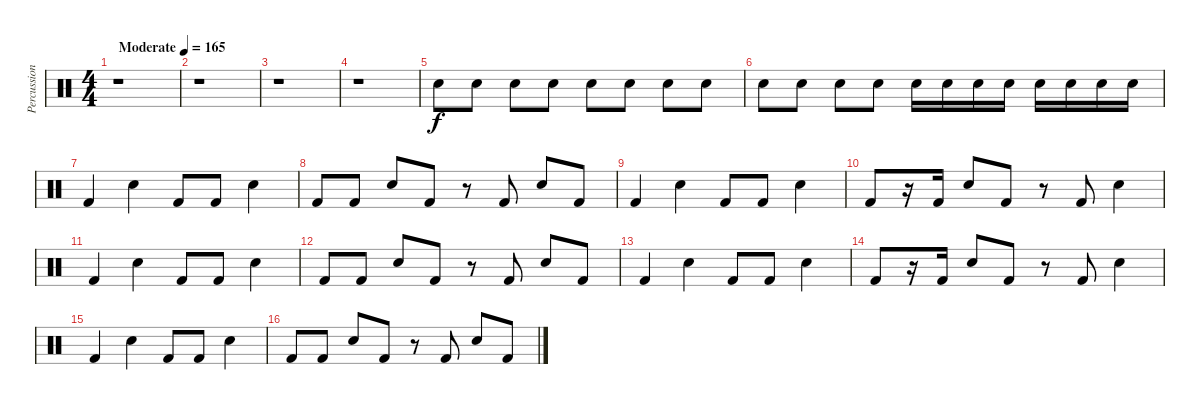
\track ("Percussion" "Percussion") {instrument percussion}
\staff {score}
\articulation defaults
\ts (4 4)
\tempo (165 "Moderate")
\clef neutral
\ks c
r.1{dy f} |
r.1 |
r.1 |
r.1 |
"Snare (hit) 2".8 "Snare (hit) 2".8 "Snare (hit) 2".8 "Snare (hit) 2".8 "Snare (hit) 2".8 "Snare (hit) 2".8 "Snare (hit) 2".8 "Snare (hit) 2".8 |
"Snare (hit) 2".8 "Snare (hit) 2".8 "Snare (hit) 2".8 "Snare (hit) 2".8 "Snare (hit) 2".16 "Snare (hit) 2".16 "Snare (hit) 2".16 "Snare (hit) 2".16 "Snare (hit) 2".16 "Snare (hit) 2".16 "Snare (hit) 2".16 "Snare (hit) 2".16 |
"Kick (hit) 2".4 "Snare (hit) 2".4 "Kick (hit) 2".8 "Kick (hit) 2".8 "Snare (hit) 2".4 |
"Kick (hit) 2".8 "Kick (hit) 2".8 "Snare (hit) 2".8 "Kick (hit) 2".8 r.8 "Kick (hit) 2".8 "Snare (hit) 2".8 "Kick (hit) 2".8 |
"Kick (hit) 2".4 "Snare (hit) 2".4 "Kick (hit) 2".8 "Kick (hit) 2".8 "Snare (hit) 2".4 |
"Kick (hit) 2".8 r.16 "Kick (hit) 2".16 "Snare (hit) 2".8 "Kick (hit) 2".8 r.8 "Kick (hit) 2".8 "Snare (hit) 2".4 |
"Kick (hit) 2".4 "Snare (hit) 2".4 "Kick (hit) 2".8 "Kick (hit) 2".8 "Snare (hit) 2".4 |
"Kick (hit) 2".8 "Kick (hit) 2".8 "Snare (hit) 2".8 "Kick (hit) 2".8 r.8 "Kick (hit) 2".8 "Snare (hit) 2".8 "Kick (hit) 2".8 |
"Kick (hit) 2".4 "Snare (hit) 2".4 "Kick (hit) 2".8 "Kick (hit) 2".8 "Snare (hit) 2".4 |
"Kick (hit) 2".8 r.16 "Kick (hit) 2".16 "Snare (hit) 2".8 "Kick (hit) 2".8 r.8 "Kick (hit) 2".8 "Snare (hit) 2".4 |
"Kick (hit) 2".4 "Snare (hit) 2".4 "Kick (hit) 2".8 "Kick (hit) 2".8 "Snare (hit) 2".4 |
"Kick (hit) 2".8 "Kick (hit) 2".8 "Snare (hit) 2".8 "Kick (hit) 2".8 r.8 "Kick (hit) 2".8 "Snare (hit) 2".8 "Kick (hit) 2".8
